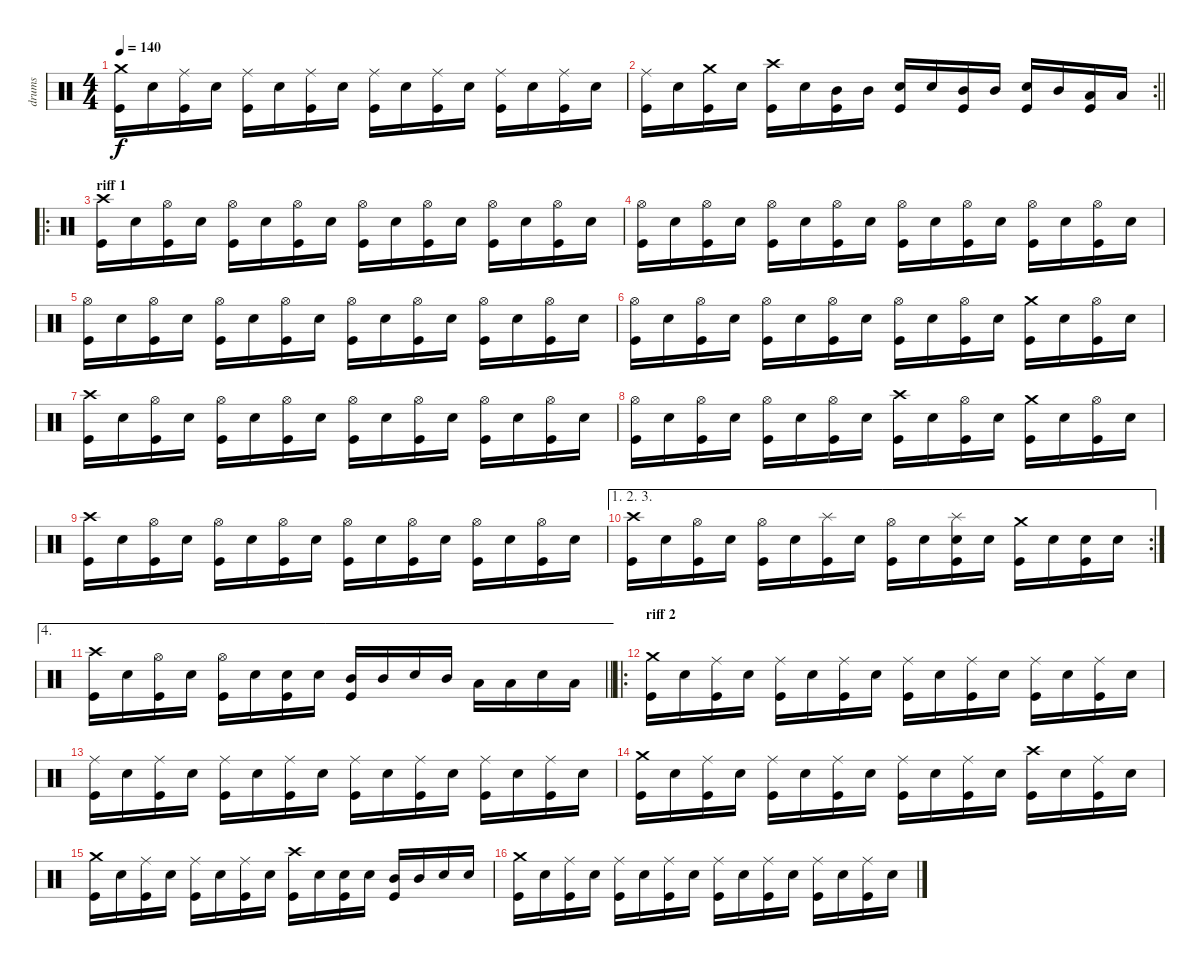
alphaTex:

\track ("drums" "drums") {instrument percussion}
\staff {score}
\articulation defaults
\ts (4 4)
\tempo 140
\clef neutral
\ks c
("Crash medium (hit)" "Kick (hit)").16{dy f} "Snare (hit) 2".16 ("Ride (middle)" "Kick (hit)").16 "Snare (hit) 2".16 ("Ride (middle)" "Kick (hit)").16 "Snare (hit) 2".16 ("Ride (middle)" "Kick (hit)").16 "Snare (hit) 2".16 ("Ride (middle)" "Kick (hit)").16 "Snare (hit) 2".16 ("Ride (middle)" "Kick (hit)").16 "Snare (hit) 2".16 ("Ride (middle)" "Kick (hit)").16 "Snare (hit) 2".16 ("Ride (middle)" "Kick (hit)").16 "Snare (hit) 2".16 |
\rc 2
\barLineRight lightlight
("Ride (middle)" "Kick (hit)").16 "Snare (hit) 2".16 ("Crash medium (hit)" "Kick (hit)").16 "Snare (hit) 2".16 ("Crash high (hit)" "Kick (hit)").16 "Snare (hit) 2".16 ("Mid Tom (hit)" "Kick (hit)").16 "Mid Tom (hit)".16 ("Snare (hit) 2" "Kick (hit)").16 "Snare (hit) 2".16 ("Mid Tom (hit)" "Kick (hit)").16 "Mid Tom (hit)".16 ("Snare (hit) 2" "Kick (hit)").16 "Mid Tom (hit)".16 ("Low Tom (hit)" "Kick (hit)").16 "Low Tom (hit)".16 |
\ro
\section ("" "riff 1")
("Crash high (hit)" "Kick (hit)").16 "Snare (hit) 2".16 ("Hi-Hat (open)" "Kick (hit)").16 "Snare (hit) 2".16 ("Hi-Hat (open)" "Kick (hit)").16 "Snare (hit) 2".16 ("Hi-Hat (open)" "Kick (hit)").16 "Snare (hit) 2".16 ("Hi-Hat (open)" "Kick (hit)").16 "Snare (hit) 2".16 ("Hi-Hat (open)" "Kick (hit)").16 "Snare (hit) 2".16 ("Hi-Hat (open)" "Kick (hit)").16 "Snare (hit) 2".16 ("Hi-Hat (open)" "Kick (hit)").16 "Snare (hit) 2".16 |
("Hi-Hat (open)" "Kick (hit)").16 "Snare (hit) 2".16 ("Hi-Hat (open)" "Kick (hit)").16 "Snare (hit) 2".16 ("Hi-Hat (open)" "Kick (hit)").16 "Snare (hit) 2".16 ("Hi-Hat (open)" "Kick (hit)").16 "Snare (hit) 2".16 ("Hi-Hat (open)" "Kick (hit)").16 "Snare (hit) 2".16 ("Hi-Hat (open)" "Kick (hit)").16 "Snare (hit) 2".16 ("Hi-Hat (open)" "Kick (hit)").16 "Snare (hit) 2".16 ("Hi-Hat (open)" "Kick (hit)").16 "Snare (hit) 2".16 |
("Hi-Hat (open)" "Kick (hit)").16 "Snare (hit) 2".16 ("Hi-Hat (open)" "Kick (hit)").16 "Snare (hit) 2".16 ("Hi-Hat (open)" "Kick (hit)").16 "Snare (hit) 2".16 ("Hi-Hat (open)" "Kick (hit)").16 "Snare (hit) 2".16 ("Hi-Hat (open)" "Kick (hit)").16 "Snare (hit) 2".16 ("Hi-Hat (open)" "Kick (hit)").16 "Snare (hit) 2".16 ("Hi-Hat (open)" "Kick (hit)").16 "Snare (hit) 2".16 ("Hi-Hat (open)" "Kick (hit)").16 "Snare (hit) 2".16 |
("Hi-Hat (open)" "Kick (hit)").16 "Snare (hit) 2".16 ("Hi-Hat (open)" "Kick (hit)").16 "Snare (hit) 2".16 ("Hi-Hat (open)" "Kick (hit)").16 "Snare (hit) 2".16 ("Hi-Hat (open)" "Kick (hit)").16 "Snare (hit) 2".16 ("Hi-Hat (open)" "Kick (hit)").16 "Snare (hit) 2".16 ("Hi-Hat (open)" "Kick (hit)").16 "Snare (hit) 2".16 ("Crash medium (hit)" "Kick (hit)").16 "Snare (hit) 2".16 ("Hi-Hat (open)" "Kick (hit)").16 "Snare (hit) 2".16 |
("Crash high (hit)" "Kick (hit)").16 "Snare (hit) 2".16 ("Hi-Hat (open)" "Kick (hit)").16 "Snare (hit) 2".16 ("Hi-Hat (open)" "Kick (hit)").16 "Snare (hit) 2".16 ("Hi-Hat (open)" "Kick (hit)").16 "Snare (hit) 2".16 ("Hi-Hat (open)" "Kick (hit)").16 "Snare (hit) 2".16 ("Hi-Hat (open)" "Kick (hit)").16 "Snare (hit) 2".16 ("Hi-Hat (open)" "Kick (hit)").16 "Snare (hit) 2".16 ("Hi-Hat (open)" "Kick (hit)").16 "Snare (hit) 2".16 |
("Hi-Hat (open)" "Kick (hit)").16 "Snare (hit) 2".16 ("Hi-Hat (open)" "Kick (hit)").16 "Snare (hit) 2".16 ("Hi-Hat (open)" "Kick (hit)").16 "Snare (hit) 2".16 ("Hi-Hat (open)" "Kick (hit)").16 "Snare (hit) 2".16 ("Crash high (hit)" "Kick (hit)").16 "Snare (hit) 2".16 ("Hi-Hat (open)" "Kick (hit)").16 "Snare (hit) 2".16 ("Crash medium (hit)" "Kick (hit)").16 "Snare (hit) 2".16 ("Hi-Hat (open)" "Kick (hit)").16 "Snare (hit) 2".16 |
("Crash high (hit)" "Kick (hit)").16 "Snare (hit) 2".16 ("Hi-Hat (open)" "Kick (hit)").16 "Snare (hit) 2".16 ("Hi-Hat (open)" "Kick (hit)").16 "Snare (hit) 2".16 ("Hi-Hat (open)" "Kick (hit)").16 "Snare (hit) 2".16 ("Hi-Hat (open)" "Kick (hit)").16 "Snare (hit) 2".16 ("Hi-Hat (open)" "Kick (hit)").16 "Snare (hit) 2".16 ("Hi-Hat (open)" "Kick (hit)").16 "Snare (hit) 2".16 ("Hi-Hat (open)" "Kick (hit)").16 "Snare (hit) 2".16 |
\ae (1 2 3)
\rc 2
("Crash high (hit)" "Kick (hit)").16 "Snare (hit) 2".16 ("Hi-Hat (open)" "Kick (hit)").16 "Snare (hit) 2".16 ("Hi-Hat (open)" "Kick (hit)").16 "Snare (hit) 2".16 ("Splash (hit)" "Kick (hit)").16 "Snare (hit) 2".16 ("Hi-Hat (open)" "Kick (hit)").16 "Snare (hit) 2".16 ("Splash (hit)" "Snare (hit) 2" "Kick (hit)").16 "Snare (hit) 2".16 ("Crash medium (hit)" "Kick (hit)").16 "Snare (hit) 2".16 ("Snare (hit) 2" "Kick (hit)").16 "Snare (hit) 2".16 |
\ae 4
\barLineRight lightlight
("Crash high (hit)" "Kick (hit)").16 "Snare (hit) 2".16 ("Hi-Hat (open)" "Kick (hit)").16 "Snare (hit) 2".16 ("Hi-Hat (open)" "Kick (hit)").16 "Snare (hit) 2".16 ("Snare (hit) 2" "Kick (hit)").16 "Snare (hit) 2".16 ("Mid Tom (hit)" "Kick (hit)").16 "Mid Tom (hit)".16 "Snare (hit) 2".16 "Mid Tom (hit)".16 "Low Tom (hit)".16 "Low Tom (hit)".16 "Snare (hit) 2".16 "Low Tom (hit)".16 |
\ro
\section ("" "riff 2")
("Crash medium (hit)" "Kick (hit)").16 "Snare (hit) 2".16 ("Ride (middle)" "Kick (hit)").16 "Snare (hit) 2".16 ("Ride (middle)" "Kick (hit)").16 "Snare (hit) 2".16 ("Ride (middle)" "Kick (hit)").16 "Snare (hit) 2".16 ("Ride (middle)" "Kick (hit)").16 "Snare (hit) 2".16 ("Ride (middle)" "Kick (hit)").16 "Snare (hit) 2".16 ("Ride (middle)" "Kick (hit)").16 "Snare (hit) 2".16 ("Ride (middle)" "Kick (hit)").16 "Snare (hit) 2".16 |
("Ride (middle)" "Kick (hit)").16 "Snare (hit) 2".16 ("Ride (middle)" "Kick (hit)").16 "Snare (hit) 2".16 ("Ride (middle)" "Kick (hit)").16 "Snare (hit) 2".16 ("Ride (middle)" "Kick (hit)").16 "Snare (hit) 2".16 ("Ride (middle)" "Kick (hit)").16 "Snare (hit) 2".16 ("Ride (middle)" "Kick (hit)").16 "Snare (hit) 2".16 ("Ride (middle)" "Kick (hit)").16 "Snare (hit) 2".16 ("Ride (middle)" "Kick (hit)").16 "Snare (hit) 2".16 |
("Crash medium (hit)" "Kick (hit)").16 "Snare (hit) 2".16 ("Ride (middle)" "Kick (hit)").16 "Snare (hit) 2".16 ("Ride (middle)" "Kick (hit)").16 "Snare (hit) 2".16 ("Ride (middle)" "Kick (hit)").16 "Snare (hit) 2".16 ("Ride (middle)" "Kick (hit)").16 "Snare (hit) 2".16 ("Ride (middle)" "Kick (hit)").16 "Snare (hit) 2".16 ("Crash high (hit)" "Kick (hit)").16 "Snare (hit) 2".16 ("Ride (middle)" "Kick (hit)").16 "Snare (hit) 2".16 |
("Crash medium (hit)" "Kick (hit)").16 "Snare (hit) 2".16 ("Ride (middle)" "Kick (hit)").16 "Snare (hit) 2".16 ("Ride (middle)" "Kick (hit)").16 "Snare (hit) 2".16 ("Ride (middle)" "Kick (hit)").16 "Snare (hit) 2".16 ("Crash high (hit)" "Kick (hit)").16 "Snare (hit) 2".16 ("Snare (hit) 2" "Kick (hit)").16 "Snare (hit) 2".16 ("Mid Tom (hit)" "Kick (hit)").16 "Mid Tom (hit)".16 "Snare (hit) 2".16 "Snare (hit) 2".16 |
("Crash medium (hit)" "Kick (hit)").16 "Snare (hit) 2".16 ("Ride (middle)" "Kick (hit)").16 "Snare (hit) 2".16 ("Ride (middle)" "Kick (hit)").16 "Snare (hit) 2".16 ("Ride (middle)" "Kick (hit)").16 "Snare (hit) 2".16 ("Ride (middle)" "Kick (hit)").16 "Snare (hit) 2".16 ("Ride (middle)" "Kick (hit)").16 "Snare (hit) 2".16 ("Ride (middle)" "Kick (hit)").16 "Snare (hit) 2".16 ("Ride (middle)" "Kick (hit)").16 "Snare (hit) 2".16
